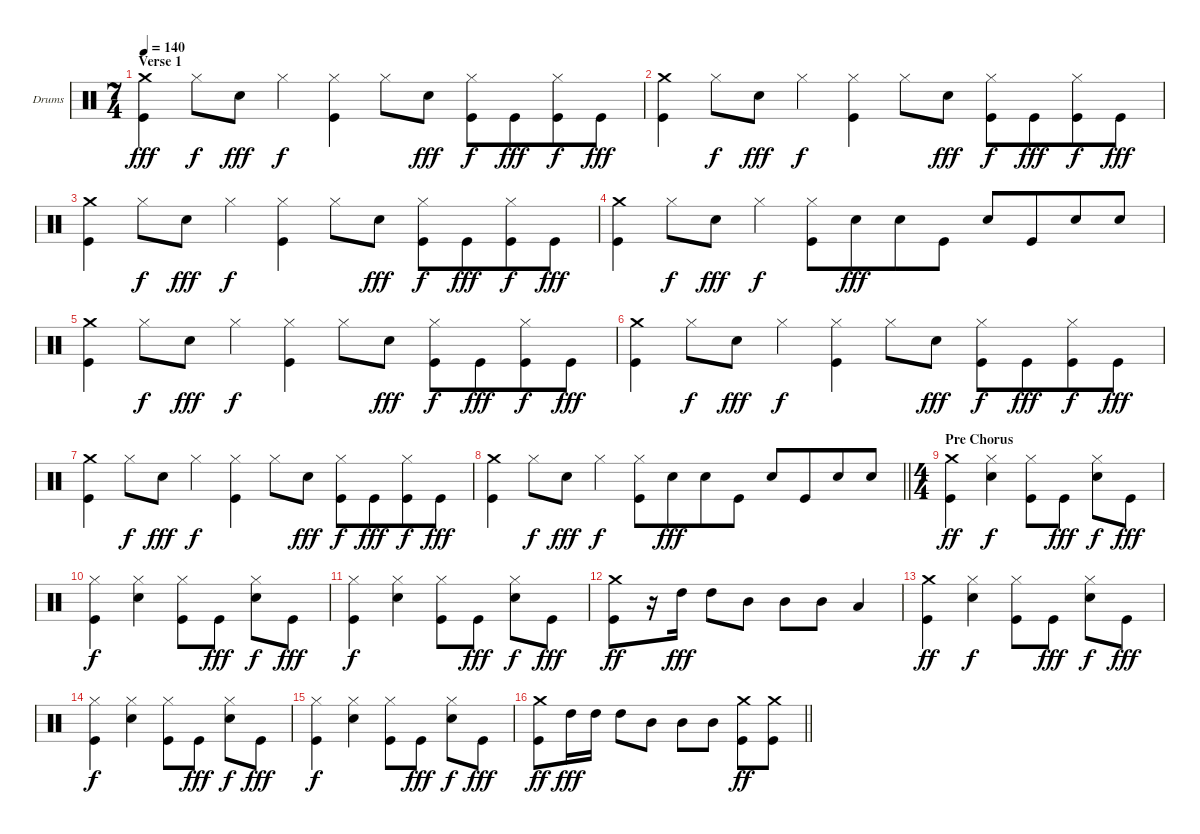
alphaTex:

\bracketExtendMode groupsimilarinstruments
\firstSystemTrackNameOrientation horizontal
\otherSystemsTrackNameOrientation horizontal
\track ("Drumkit" "Drums") {instrument percussion}
\staff {score}
\articulation defaults
\ts (7 4)
\beaming (8 6 4 4)
\section ("" "Verse 1")
\tempo 140
\clef neutral
\ks c
("Crash medium (hit)" "Kick (hit)").4{dy fff} "Hi-Hat (closed)".8{dy f} "Snare (hit) 2".8{dy fff} "Hi-Hat (closed)".4{dy f} ("Hi-Hat (closed)" "Kick (hit)").4 "Hi-Hat (closed)".8 "Snare (hit) 2".8{dy fff} ("Hi-Hat (closed)" "Kick (hit)").8{dy f} "Kick (hit)".8{dy fff} ("Hi-Hat (closed)" "Kick (hit)").8{dy f} "Kick (hit)".8{dy fff} |
("Crash medium (hit)" "Kick (hit)").4 "Hi-Hat (closed)".8{dy f} "Snare (hit) 2".8{dy fff} "Hi-Hat (closed)".4{dy f} ("Hi-Hat (closed)" "Kick (hit)").4 "Hi-Hat (closed)".8 "Snare (hit) 2".8{dy fff} ("Hi-Hat (closed)" "Kick (hit)").8{dy f} "Kick (hit)".8{dy fff} ("Hi-Hat (closed)" "Kick (hit)").8{dy f} "Kick (hit)".8{dy fff} |
("Crash medium (hit)" "Kick (hit)").4 "Hi-Hat (closed)".8{dy f} "Snare (hit) 2".8{dy fff} "Hi-Hat (closed)".4{dy f} ("Hi-Hat (closed)" "Kick (hit)").4 "Hi-Hat (closed)".8 "Snare (hit) 2".8{dy fff} ("Hi-Hat (closed)" "Kick (hit)").8{dy f} "Kick (hit)".8{dy fff} ("Hi-Hat (closed)" "Kick (hit)").8{dy f} "Kick (hit)".8{dy fff} |
("Crash medium (hit)" "Kick (hit)").4 "Hi-Hat (closed)".8{dy f} "Snare (hit) 2".8{dy fff} "Hi-Hat (closed)".4{dy f} ("Hi-Hat (closed)" "Kick (hit)").8 "Snare (hit) 2".8{dy fff} "Snare (hit) 2".8 "Kick (hit)".8 "Snare (hit) 2".8 "Kick (hit)".8 "Snare (hit) 2".8 "Snare (hit) 2".8 |
("Crash medium (hit)" "Kick (hit)").4 "Hi-Hat (closed)".8{dy f} "Snare (hit) 2".8{dy fff} "Hi-Hat (closed)".4{dy f} ("Hi-Hat (closed)" "Kick (hit)").4 "Hi-Hat (closed)".8 "Snare (hit) 2".8{dy fff} ("Hi-Hat (closed)" "Kick (hit)").8{dy f} "Kick (hit)".8{dy fff} ("Hi-Hat (closed)" "Kick (hit)").8{dy f} "Kick (hit)".8{dy fff} |
("Crash medium (hit)" "Kick (hit)").4 "Hi-Hat (closed)".8{dy f} "Snare (hit) 2".8{dy fff} "Hi-Hat (closed)".4{dy f} ("Hi-Hat (closed)" "Kick (hit)").4 "Hi-Hat (closed)".8 "Snare (hit) 2".8{dy fff} ("Hi-Hat (closed)" "Kick (hit)").8{dy f} "Kick (hit)".8{dy fff} ("Hi-Hat (closed)" "Kick (hit)").8{dy f} "Kick (hit)".8{dy fff} |
("Crash medium (hit)" "Kick (hit)").4 "Hi-Hat (closed)".8{dy f} "Snare (hit) 2".8{dy fff} "Hi-Hat (closed)".4{dy f} ("Hi-Hat (closed)" "Kick (hit)").4 "Hi-Hat (closed)".8 "Snare (hit) 2".8{dy fff} ("Hi-Hat (closed)" "Kick (hit)").8{dy f} "Kick (hit)".8{dy fff} ("Hi-Hat (closed)" "Kick (hit)").8{dy f} "Kick (hit)".8{dy fff} |
\barLineRight lightlight
("Crash medium (hit)" "Kick (hit)").4 "Hi-Hat (closed)".8{dy f} "Snare (hit) 2".8{dy fff} "Hi-Hat (closed)".4{dy f} ("Hi-Hat (closed)" "Kick (hit)").8 "Snare (hit) 2".8{dy fff} "Snare (hit) 2".8 "Kick (hit)".8 "Snare (hit) 2".8 "Kick (hit)".8 "Snare (hit) 2".8 "Snare (hit) 2".8 |
\ts (4 4)
\beaming (8 2 2 2 2)
\section ("" "Pre Chorus")
("Crash medium (hit)" "Kick (hit)").4{dy ff} ("Hi-Hat (closed)" "Snare (hit) 2").4{dy f} ("Hi-Hat (closed)" "Kick (hit)").8 "Kick (hit)".8{dy fff} ("Hi-Hat (closed)" "Snare (hit) 2").8{dy f} "Kick (hit)".8{dy fff} |
("Hi-Hat (closed)" "Kick (hit)").4{dy f} ("Hi-Hat (closed)" "Snare (hit) 2").4 ("Hi-Hat (closed)" "Kick (hit)").8 "Kick (hit)".8{dy fff} ("Hi-Hat (closed)" "Snare (hit) 2").8{dy f} "Kick (hit)".8{dy fff} |
("Hi-Hat (closed)" "Kick (hit)").4{dy f} ("Hi-Hat (closed)" "Snare (hit) 2").4 ("Hi-Hat (closed)" "Kick (hit)").8 "Kick (hit)".8{dy fff} ("Hi-Hat (closed)" "Snare (hit) 2").8{dy f} "Kick (hit)".8{dy fff} |
("Crash medium (hit)" "Kick (hit)").8{dy ff} r.16 "High Tom (hit)".16{dy fff} "High Tom (hit)".8 "Mid Tom (hit)".8 "Mid Tom (hit)".8 "Mid Tom (hit)".8 "Low Tom (hit)".4 |
("Crash medium (hit)" "Kick (hit)").4{dy ff} ("Hi-Hat (closed)" "Snare (hit) 2").4{dy f} ("Hi-Hat (closed)" "Kick (hit)").8 "Kick (hit)".8{dy fff} ("Hi-Hat (closed)" "Snare (hit) 2").8{dy f} "Kick (hit)".8{dy fff} |
("Hi-Hat (closed)" "Kick (hit)").4{dy f} ("Hi-Hat (closed)" "Snare (hit) 2").4 ("Hi-Hat (closed)" "Kick (hit)").8 "Kick (hit)".8{dy fff} ("Hi-Hat (closed)" "Snare (hit) 2").8{dy f} "Kick (hit)".8{dy fff} |
("Hi-Hat (closed)" "Kick (hit)").4{dy f} ("Hi-Hat (closed)" "Snare (hit) 2").4 ("Hi-Hat (closed)" "Kick (hit)").8 "Kick (hit)".8{dy fff} ("Hi-Hat (closed)" "Snare (hit) 2").8{dy f} "Kick (hit)".8{dy fff} |
\barLineRight lightlight
("Crash medium (hit)" "Kick (hit)").8{dy ff} "High Tom (hit)".16{dy fff} "High Tom (hit)".16 "High Tom (hit)".8 "Mid Tom (hit)".8 "Mid Tom (hit)".8 "Mid Tom (hit)".8 ("Crash medium (hit)" "Kick (hit)").8{dy ff} ("Crash medium (hit)" "Kick (hit)").8
